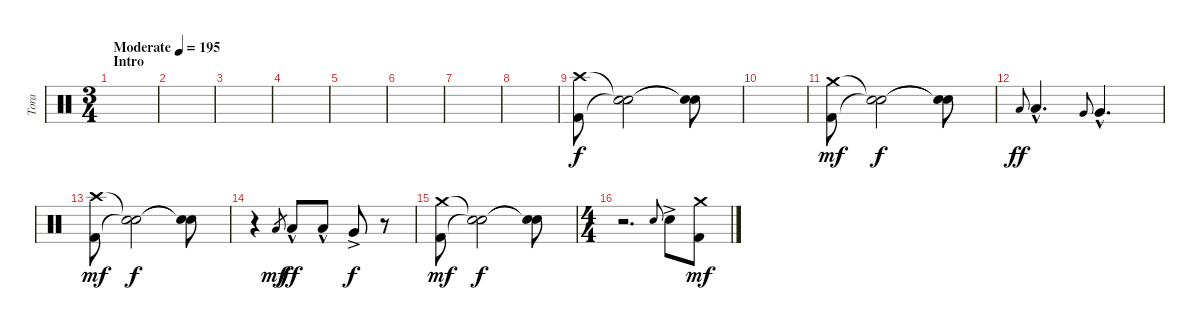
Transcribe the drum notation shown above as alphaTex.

\track ("Tora" "Tora") {instrument percussion}
\staff {score}
\articulation defaults
\ts (3 4)
\section ("" "Intro")
\tempo (195 "Moderate")
\clef neutral
\ks c
|
|
|
|
|
|
|
|
("Crash high (hit)" "Kick (hit) 2").8{volume 13} ("Snare (hit)"{t} "Snare (hit)"{t}).2{dy f volume 0} ("Snare (hit)"{t} "Snare (hit)"{t}).8 |
|
("Crash medium (hit)" "Kick (hit) 2").8{dy mf volume 13} ("Snare (hit)"{t} "Snare (hit)"{t}).2{dy f volume 0} ("Snare (hit)"{t} "Snare (hit)"{t}).8 |
"Low Tom (hit)".8{gr onbeat dy ff} "Low Tom (hit)"{hac}.4{d volume 13} "Very Low Tom (hit)".8{gr onbeat} "Very Low Tom (hit)"{hac}.4{d} |
("Crash high (hit)" "Kick (hit) 2").8{dy mf volume 13} ("Snare (hit)"{t} "Snare (hit)"{t}).2{dy f volume 0} ("Snare (hit)"{t} "Snare (hit)"{t}).8 |
r.4{volume 13} "Low Tom (hit)".8{gr dy mf} "Low Tom (hit)"{hac}.8{dy ff} "Low Tom (hit)"{hac}.8 "Very Low Tom (hit)"{ac}.8{dy f} r.8 |
("Crash medium (hit)" "Kick (hit) 2").8{dy mf volume 13} ("Snare (hit)"{t} "Snare (hit)"{t}).2{dy f volume 0} ("Snare (hit)"{t} "Snare (hit)"{t}).8 |
\ts (4 4)
r.2{d volume 13} "Electric Snare (hit)".8{gr onbeat} "Electric Snare (hit)"{ac}.8 ("Crash medium (hit)" "Kick (hit) 2").8{dy mf}
